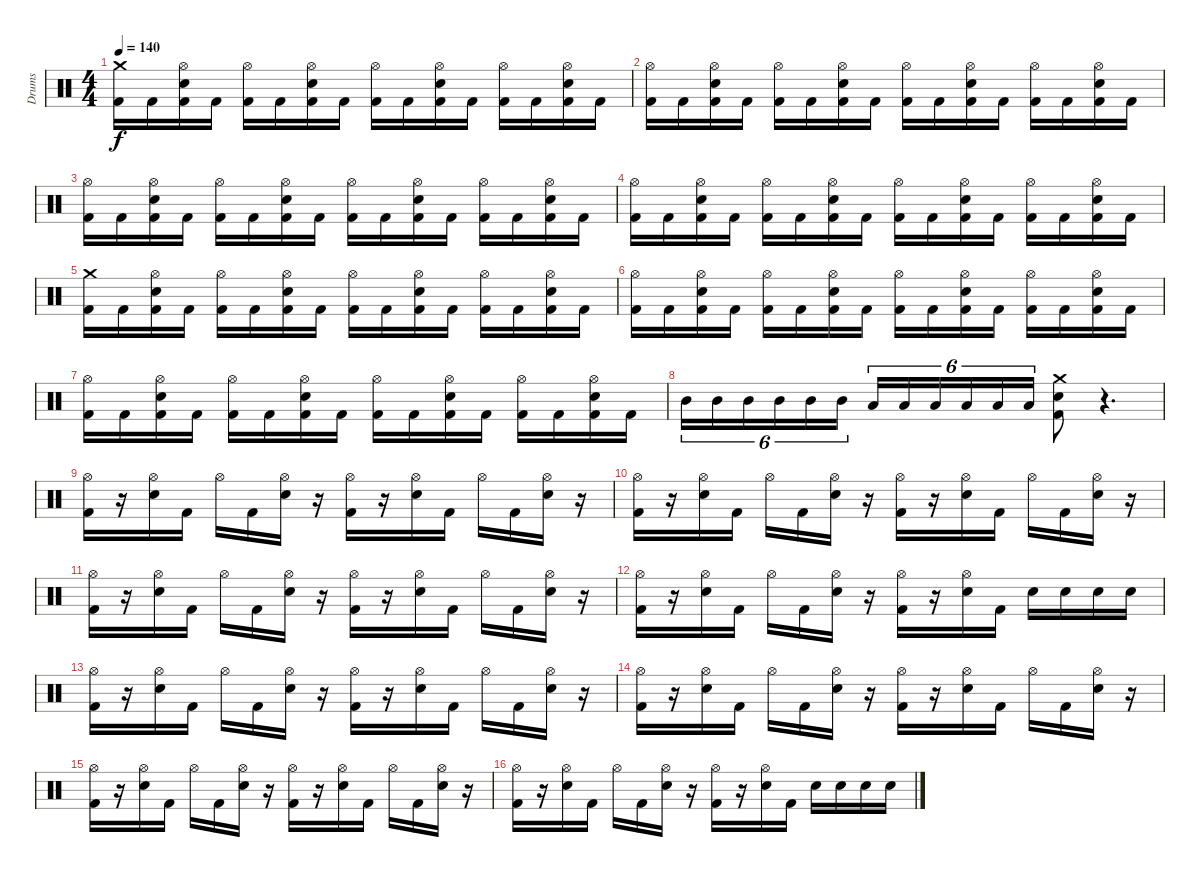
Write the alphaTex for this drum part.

\track ("Drums" "Drums") {instrument percussion}
\staff {score}
\articulation defaults
\ts (4 4)
\tempo 140
\clef neutral
\ks c
("Crash medium (hit)" "Kick (hit) 2").16{dy f} "Kick (hit) 2".16 ("Electric Snare (hit)" "Kick (hit) 2" "Hi-Hat (open)").16 "Kick (hit) 2".16 ("Kick (hit) 2" "Hi-Hat (open)").16 "Kick (hit) 2".16 ("Electric Snare (hit)" "Hi-Hat (open)" "Kick (hit) 2").16 "Kick (hit) 2".16 ("Kick (hit) 2" "Hi-Hat (open)").16 "Kick (hit) 2".16 ("Electric Snare (hit)" "Hi-Hat (open)" "Kick (hit) 2").16 "Kick (hit) 2".16 ("Kick (hit) 2" "Hi-Hat (open)").16 "Kick (hit) 2".16 ("Kick (hit) 2" "Electric Snare (hit)" "Hi-Hat (open)").16 "Kick (hit) 2".16 |
("Kick (hit) 2" "Hi-Hat (open)").16 "Kick (hit) 2".16 ("Hi-Hat (open)" "Kick (hit) 2" "Electric Snare (hit)").16 "Kick (hit) 2".16 ("Kick (hit) 2" "Hi-Hat (open)").16 "Kick (hit) 2".16 ("Electric Snare (hit)" "Hi-Hat (open)" "Kick (hit) 2").16 "Kick (hit) 2".16 ("Hi-Hat (open)" "Kick (hit) 2").16 "Kick (hit) 2".16 ("Hi-Hat (open)" "Electric Snare (hit)" "Kick (hit) 2").16 "Kick (hit) 2".16 ("Kick (hit) 2" "Hi-Hat (open)").16 "Kick (hit) 2".16 ("Hi-Hat (open)" "Kick (hit) 2" "Electric Snare (hit)").16 "Kick (hit) 2".16 |
("Kick (hit) 2" "Hi-Hat (open)").16 "Kick (hit) 2".16 ("Electric Snare (hit)" "Hi-Hat (open)" "Kick (hit) 2").16 "Kick (hit) 2".16 ("Kick (hit) 2" "Hi-Hat (open)").16 "Kick (hit) 2".16 ("Kick (hit) 2" "Hi-Hat (open)" "Electric Snare (hit)").16 "Kick (hit) 2".16 ("Kick (hit) 2" "Hi-Hat (open)").16 "Kick (hit) 2".16 ("Electric Snare (hit)" "Hi-Hat (open)" "Kick (hit) 2").16 "Kick (hit) 2".16 ("Hi-Hat (open)" "Kick (hit) 2").16 "Kick (hit) 2".16 ("Electric Snare (hit)" "Kick (hit) 2" "Hi-Hat (open)").16 "Kick (hit) 2".16 |
("Hi-Hat (open)" "Kick (hit) 2").16 "Kick (hit) 2".16 ("Hi-Hat (open)" "Electric Snare (hit)" "Kick (hit) 2").16 "Kick (hit) 2".16 ("Kick (hit) 2" "Hi-Hat (open)").16 "Kick (hit) 2".16 ("Electric Snare (hit)" "Hi-Hat (open)" "Kick (hit) 2").16 "Kick (hit) 2".16 ("Hi-Hat (open)" "Kick (hit) 2").16 "Kick (hit) 2".16 ("Electric Snare (hit)" "Kick (hit) 2" "Hi-Hat (open)").16 "Kick (hit) 2".16 ("Hi-Hat (open)" "Kick (hit) 2").16 "Kick (hit) 2".16 ("Kick (hit) 2" "Electric Snare (hit)" "Hi-Hat (open)").16 "Kick (hit) 2".16 |
("Kick (hit) 2" "Crash medium (hit)").16 "Kick (hit) 2".16 ("Electric Snare (hit)" "Hi-Hat (open)" "Kick (hit) 2").16 "Kick (hit) 2".16 ("Kick (hit) 2" "Hi-Hat (open)").16 "Kick (hit) 2".16 ("Electric Snare (hit)" "Hi-Hat (open)" "Kick (hit) 2").16 "Kick (hit) 2".16 ("Hi-Hat (open)" "Kick (hit) 2").16 "Kick (hit) 2".16 ("Hi-Hat (open)" "Electric Snare (hit)" "Kick (hit) 2").16 "Kick (hit) 2".16 ("Hi-Hat (open)" "Kick (hit) 2").16 "Kick (hit) 2".16 ("Electric Snare (hit)" "Hi-Hat (open)" "Kick (hit) 2").16 "Kick (hit) 2".16 |
("Kick (hit) 2" "Hi-Hat (open)").16 "Kick (hit) 2".16 ("Electric Snare (hit)" "Hi-Hat (open)" "Kick (hit) 2").16 "Kick (hit) 2".16 ("Hi-Hat (open)" "Kick (hit) 2").16 "Kick (hit) 2".16 ("Electric Snare (hit)" "Hi-Hat (open)" "Kick (hit) 2").16 "Kick (hit) 2".16 ("Kick (hit) 2" "Hi-Hat (open)").16 "Kick (hit) 2".16 ("Electric Snare (hit)" "Kick (hit) 2" "Hi-Hat (open)").16 "Kick (hit) 2".16 ("Hi-Hat (open)" "Kick (hit) 2").16 "Kick (hit) 2".16 ("Hi-Hat (open)" "Kick (hit) 2" "Electric Snare (hit)").16 "Kick (hit) 2".16 |
("Kick (hit) 2" "Hi-Hat (open)").16 "Kick (hit) 2".16 ("Hi-Hat (open)" "Electric Snare (hit)" "Kick (hit) 2").16 "Kick (hit) 2".16 ("Hi-Hat (open)" "Kick (hit) 2").16 "Kick (hit) 2".16 ("Electric Snare (hit)" "Kick (hit) 2" "Hi-Hat (open)").16 "Kick (hit) 2".16 ("Hi-Hat (open)" "Kick (hit) 2").16 "Kick (hit) 2".16 ("Hi-Hat (open)" "Kick (hit) 2" "Electric Snare (hit)").16 "Kick (hit) 2".16 ("Kick (hit) 2" "Hi-Hat (open)").16 "Kick (hit) 2".16 ("Hi-Hat (open)" "Electric Snare (hit)" "Kick (hit) 2").16 "Kick (hit) 2".16 |
"Mid Tom (hit)".16{tu (6 4)} "Mid Tom (hit)".16{tu (6 4)} "Mid Tom (hit)".16{tu (6 4)} "Mid Tom (hit)".16{tu (6 4)} "Mid Tom (hit)".16{tu (6 4)} "Mid Tom (hit)".16{tu (6 4)} "Low Tom (hit)".16{tu (6 4)} "Low Tom (hit)".16{tu (6 4)} "Low Tom (hit)".16{tu (6 4)} "Low Tom (hit)".16{tu (6 4)} "Low Tom (hit)".16{tu (6 4)} "Low Tom (hit)".16{tu (6 4)} ("Crash medium (hit)" "Electric Snare (hit)" "Kick (hit) 2").8 r.4{d} |
("Hi-Hat (open)" "Kick (hit) 2").16 r.16 ("Hi-Hat (open)" "Electric Snare (hit)").16 "Kick (hit) 2".16 "Hi-Hat (open)".16 "Kick (hit) 2".16 ("Hi-Hat (open)" "Electric Snare (hit)").16 r.16 ("Kick (hit) 2" "Hi-Hat (open)").16 r.16 ("Hi-Hat (open)" "Electric Snare (hit)").16 "Kick (hit) 2".16 "Hi-Hat (open)".16 "Kick (hit) 2".16 ("Hi-Hat (open)" "Electric Snare (hit)").16 r.16 |
("Hi-Hat (open)" "Kick (hit) 2").16 r.16 ("Electric Snare (hit)" "Hi-Hat (open)").16 "Kick (hit) 2".16 "Hi-Hat (open)".16 "Kick (hit) 2".16 ("Hi-Hat (open)" "Electric Snare (hit)").16 r.16 ("Kick (hit) 2" "Hi-Hat (open)").16 r.16 ("Electric Snare (hit)" "Hi-Hat (open)").16 "Kick (hit) 2".16 "Hi-Hat (open)".16 "Kick (hit) 2".16 ("Electric Snare (hit)" "Hi-Hat (open)").16 r.16 |
("Kick (hit) 2" "Hi-Hat (open)").16 r.16 ("Hi-Hat (open)" "Electric Snare (hit)").16 "Kick (hit) 2".16 "Hi-Hat (open)".16 "Kick (hit) 2".16 ("Hi-Hat (open)" "Electric Snare (hit)").16 r.16 ("Hi-Hat (open)" "Kick (hit) 2").16 r.16 ("Hi-Hat (open)" "Electric Snare (hit)").16 "Kick (hit) 2".16 "Hi-Hat (open)".16 "Kick (hit) 2".16 ("Electric Snare (hit)" "Hi-Hat (open)").16 r.16 |
("Hi-Hat (open)" "Kick (hit) 2").16 r.16 ("Hi-Hat (open)" "Electric Snare (hit)").16 "Kick (hit) 2".16 "Hi-Hat (open)".16 "Kick (hit) 2".16 ("Hi-Hat (open)" "Electric Snare (hit)").16 r.16 ("Kick (hit) 2" "Hi-Hat (open)").16 r.16 ("Electric Snare (hit)" "Hi-Hat (open)").16 "Kick (hit) 2".16 "Electric Snare (hit)".16 "Electric Snare (hit)".16 "Electric Snare (hit)".16 "Electric Snare (hit)".16 |
("Hi-Hat (open)" "Kick (hit) 2").16 r.16 ("Electric Snare (hit)" "Hi-Hat (open)").16 "Kick (hit) 2".16 "Hi-Hat (open)".16 "Kick (hit) 2".16 ("Hi-Hat (open)" "Electric Snare (hit)").16 r.16 ("Kick (hit) 2" "Hi-Hat (open)").16 r.16 ("Electric Snare (hit)" "Hi-Hat (open)").16 "Kick (hit) 2".16 "Hi-Hat (open)".16 "Kick (hit) 2".16 ("Electric Snare (hit)" "Hi-Hat (open)").16 r.16 |
("Hi-Hat (open)" "Kick (hit) 2").16 r.16 ("Hi-Hat (open)" "Electric Snare (hit)").16 "Kick (hit) 2".16 "Hi-Hat (open)".16 "Kick (hit) 2".16 ("Electric Snare (hit)" "Hi-Hat (open)").16 r.16 ("Kick (hit) 2" "Hi-Hat (open)").16 r.16 ("Electric Snare (hit)" "Hi-Hat (open)").16 "Kick (hit) 2".16 "Hi-Hat (open)".16 "Kick (hit) 2".16 ("Electric Snare (hit)" "Hi-Hat (open)").16 r.16 |
("Hi-Hat (open)" "Kick (hit) 2").16 r.16 ("Hi-Hat (open)" "Electric Snare (hit)").16 "Kick (hit) 2".16 "Hi-Hat (open)".16 "Kick (hit) 2".16 ("Electric Snare (hit)" "Hi-Hat (open)").16 r.16 ("Kick (hit) 2" "Hi-Hat (open)").16 r.16 ("Electric Snare (hit)" "Hi-Hat (open)").16 "Kick (hit) 2".16 "Hi-Hat (open)".16 "Kick (hit) 2".16 ("Electric Snare (hit)" "Hi-Hat (open)").16 r.16 |
("Kick (hit) 2" "Hi-Hat (open)").16 r.16 ("Electric Snare (hit)" "Hi-Hat (open)").16 "Kick (hit) 2".16 "Hi-Hat (open)".16 "Kick (hit) 2".16 ("Hi-Hat (open)" "Electric Snare (hit)").16 r.16 ("Hi-Hat (open)" "Kick (hit) 2").16 r.16 ("Hi-Hat (open)" "Electric Snare (hit)").16 "Kick (hit) 2".16 "Electric Snare (hit)".16 "Electric Snare (hit)".16 "Electric Snare (hit)".16 "Electric Snare (hit)".16
